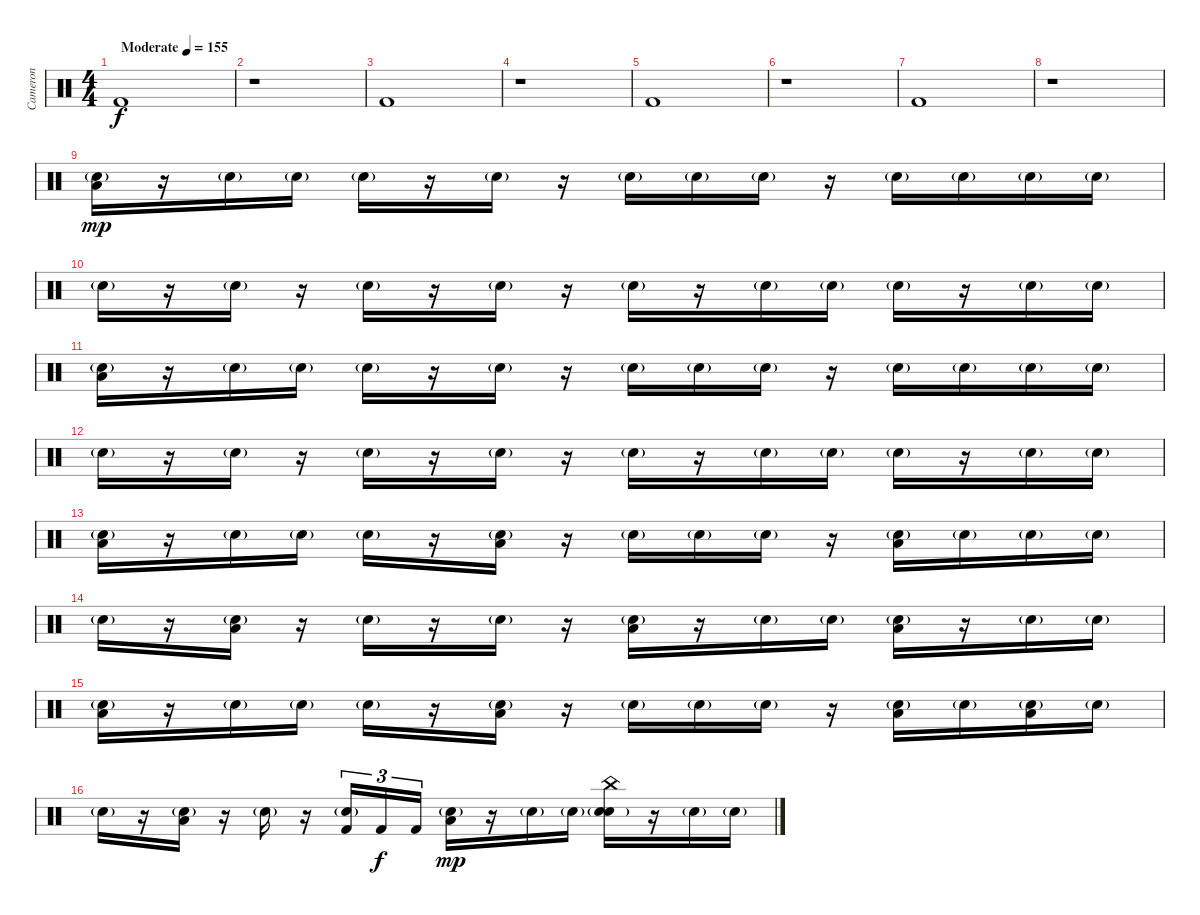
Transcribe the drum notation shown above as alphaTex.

\track ("Cameron" "Cameron") {instrument percussion}
\staff {score}
\articulation defaults
\ts (4 4)
\tempo (155 "Moderate")
\clef neutral
\ks c "Kick (hit) 2".1{dy f volume 8}
|
r.1 |
"Kick (hit) 2".1 |
r.1 |
"Kick (hit) 2".1 |
r.1 |
"Kick (hit) 2".1 |
r.1 |
("Snare (hit) 2"{g} "Low Tom (hit)").16{dy mp volume 13} r.16 "Snare (hit) 2"{g}.16 "Snare (hit) 2"{g}.16 "Snare (hit) 2"{g}.16 r.16 "Snare (hit) 2"{g}.16 r.16 "Snare (hit) 2"{g}.16 "Snare (hit) 2"{g}.16 "Snare (hit) 2"{g}.16 r.16 "Snare (hit) 2"{g}.16 "Snare (hit) 2"{g}.16 "Snare (hit) 2"{g}.16 "Snare (hit) 2"{g}.16 |
"Snare (hit) 2"{g}.16 r.16 "Snare (hit) 2"{g}.16 r.16 "Snare (hit) 2"{g}.16 r.16 "Snare (hit) 2"{g}.16 r.16 "Snare (hit) 2"{g}.16 r.16 "Snare (hit) 2"{g}.16 "Snare (hit) 2"{g}.16 "Snare (hit) 2"{g}.16 r.16 "Snare (hit) 2"{g}.16 "Snare (hit) 2"{g}.16 |
("Snare (hit) 2"{g} "Low Tom (hit)").16 r.16 "Snare (hit) 2"{g}.16 "Snare (hit) 2"{g}.16 "Snare (hit) 2"{g}.16 r.16 "Snare (hit) 2"{g}.16 r.16 "Snare (hit) 2"{g}.16 "Snare (hit) 2"{g}.16 "Snare (hit) 2"{g}.16 r.16 "Snare (hit) 2"{g}.16 "Snare (hit) 2"{g}.16 "Snare (hit) 2"{g}.16 "Snare (hit) 2"{g}.16 |
"Snare (hit) 2"{g}.16 r.16 "Snare (hit) 2"{g}.16 r.16 "Snare (hit) 2"{g}.16 r.16 "Snare (hit) 2"{g}.16 r.16 "Snare (hit) 2"{g}.16 r.16 "Snare (hit) 2"{g}.16 "Snare (hit) 2"{g}.16 "Snare (hit) 2"{g}.16 r.16 "Snare (hit) 2"{g}.16 "Snare (hit) 2"{g}.16 |
("Snare (hit) 2"{g} "Low Tom (hit)").16 r.16 "Snare (hit) 2"{g}.16 "Snare (hit) 2"{g}.16 "Snare (hit) 2"{g}.16 r.16 ("Snare (hit) 2"{g} "Low Tom (hit)").16 r.16 "Snare (hit) 2"{g}.16 "Snare (hit) 2"{g}.16 "Snare (hit) 2"{g}.16 r.16 ("Snare (hit) 2"{g} "Low Tom (hit)").16 "Snare (hit) 2"{g}.16 "Snare (hit) 2"{g}.16 "Snare (hit) 2"{g}.16 |
"Snare (hit) 2"{g}.16 r.16 ("Snare (hit) 2"{g} "Low Tom (hit)").16 r.16 "Snare (hit) 2"{g}.16 r.16 "Snare (hit) 2"{g}.16 r.16 ("Snare (hit) 2"{g} "Low Tom (hit)").16 r.16 "Snare (hit) 2"{g}.16 "Snare (hit) 2"{g}.16 ("Snare (hit) 2"{g} "Low Tom (hit)").16 r.16 "Snare (hit) 2"{g}.16 "Snare (hit) 2"{g}.16 |
("Snare (hit) 2"{g} "Low Tom (hit)").16 r.16 "Snare (hit) 2"{g}.16 "Snare (hit) 2"{g}.16 "Snare (hit) 2"{g}.16 r.16 ("Snare (hit) 2"{g} "Low Tom (hit)").16 r.16 "Snare (hit) 2"{g}.16 "Snare (hit) 2"{g}.16 "Snare (hit) 2"{g}.16 r.16 ("Snare (hit) 2"{g} "Low Tom (hit)").16 "Snare (hit) 2"{g}.16 ("Snare (hit) 2"{g} "Low Tom (hit)").16 "Snare (hit) 2"{g}.16 |
"Snare (hit) 2"{g}.16 r.16 ("Snare (hit) 2"{g} "Low Tom (hit)").16 r.16 "Snare (hit) 2"{g}.16 r.16 ("Snare (hit) 2"{g} "Kick (hit) 2").16{tu (3 2)} "Kick (hit) 2".16{tu (3 2) dy f} "Kick (hit) 2".16{tu (3 2)} ("Snare (hit) 2"{g} "Low Tom (hit)").16{dy mp} r.16 "Snare (hit) 2"{g}.16 "Snare (hit) 2"{g}.16 ("Snare (hit) 2"{g} "China (hit)" "Snare (hit) 2").16 r.16 "Snare (hit) 2"{g}.16 "Snare (hit) 2"{g}.16
